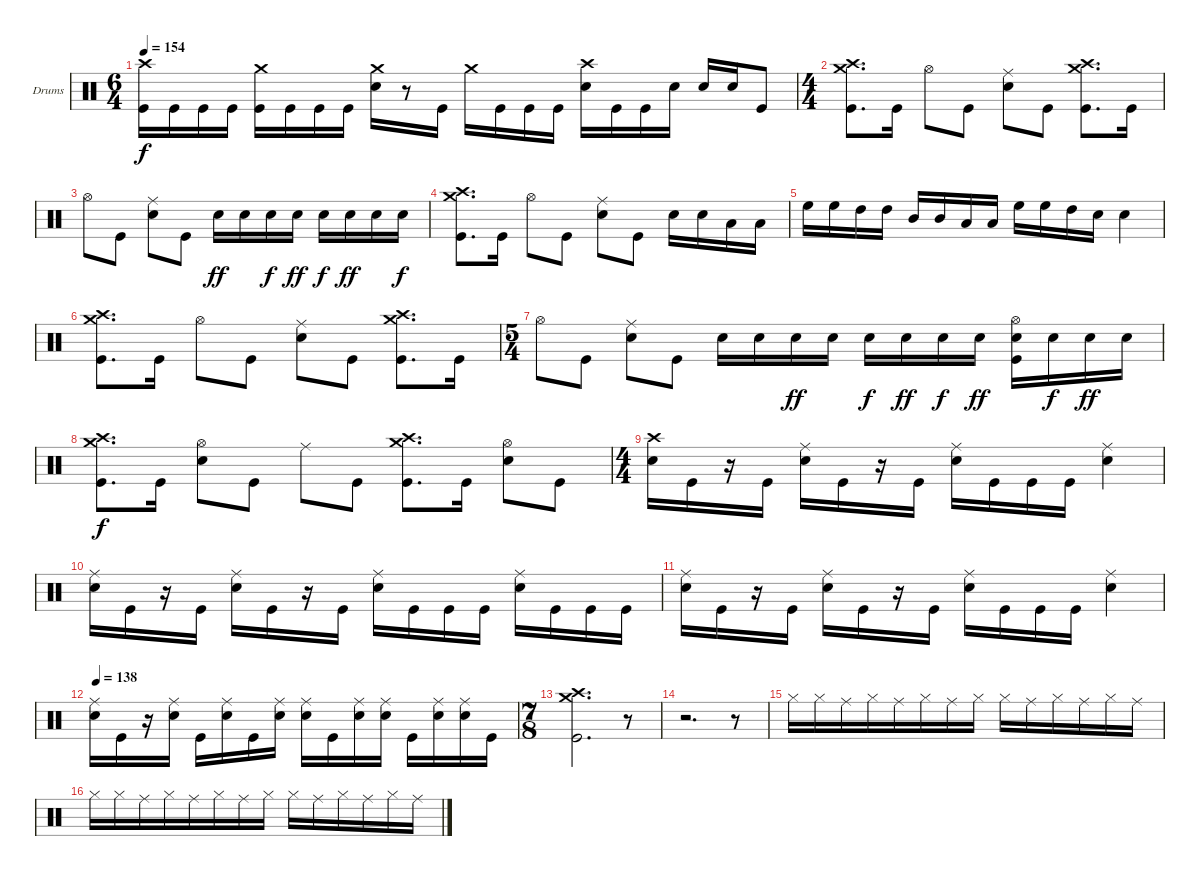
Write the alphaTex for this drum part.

\defaultSystemsLayout 4
\bracketExtendMode groupsimilarinstruments
\firstSystemTrackNameOrientation horizontal
\otherSystemsTrackNameOrientation horizontal
\track ("Moe Carlson" "Drums") {instrument percussion}
\staff {score}
\articulation defaults
\ts (6 4)
\tempo 154
\clef neutral
\ks c
("Kick (hit)" "Crash high (hit)").16{dy f} "Kick (hit)".16 "Kick (hit)".16 "Kick (hit)".16 ("Crash medium (hit)" "Kick (hit)").16 "Kick (hit)".16 "Kick (hit)".16 "Kick (hit)".16 ("Snare (hit) 2" "Crash medium (hit)").16 r.8 "Kick (hit)".16 "Crash medium (hit)".16 "Kick (hit)".16 "Kick (hit)".16 "Kick (hit)".16 ("Snare (hit) 2" "Crash high (hit)").16 "Kick (hit)".16 "Kick (hit)".16 "Snare (hit) 2".16 "Snare (hit) 2".16 "Snare (hit) 2".16 "Kick (hit)".8 |
\ts (4 4)
("Crash medium (hit)" "Crash high (hit)" "Kick (hit)").8{d} "Kick (hit)".16 "Hi-Hat (open)".8 "Kick (hit)".8 ("Snare (hit) 2" "Ride (middle)").8 "Kick (hit)".8 ("Kick (hit)" "Crash high (hit)" "Crash medium (hit)").8{d} "Kick (hit)".16 |
"Hi-Hat (open)".8 "Kick (hit)".8 ("Snare (hit) 2" "Ride (middle)").8 "Kick (hit)".8 "Snare (hit) 2".16{dy ff} "Snare (hit) 2".16 "Snare (hit) 2".16{dy f} "Snare (hit) 2".16{dy ff} "Snare (hit) 2".16{dy f} "Snare (hit) 2".16{dy ff} "Snare (hit) 2".16 "Snare (hit) 2".16{dy f} |
("Kick (hit)" "Crash high (hit)" "Crash medium (hit)").8{d} "Kick (hit)".16 "Hi-Hat (open)".8 "Kick (hit)".8 ("Snare (hit) 2" "Ride (middle)").8 "Kick (hit)".8 "Snare (hit) 2".16 "Snare (hit) 2".16 "Low Tom (hit)".16 "Low Tom (hit)".16 |
"High Floor Tom (hit)".16 "High Floor Tom (hit)".16 "High Tom (hit)".16 "High Tom (hit)".16 "Mid Tom (hit)".16 "Mid Tom (hit)".16 "Low Tom (hit)".16 "Low Tom (hit)".16 "High Floor Tom (hit)".16 "High Floor Tom (hit)".16 "High Tom (hit)".16 "Snare (hit) 2".16 "Snare (hit) 2".4 |
("Crash high (hit)" "Crash medium (hit)" "Kick (hit)").8{d} "Kick (hit)".16 "Hi-Hat (open)".8 "Kick (hit)".8 ("Snare (hit) 2" "Ride (middle)").8 "Kick (hit)".8 ("Kick (hit)" "Crash high (hit)" "Crash medium (hit)").8{d} "Kick (hit)".16 |
\ts (5 4)
"Hi-Hat (open)".8 "Kick (hit)".8 ("Snare (hit) 2" "Ride (middle)").8 "Kick (hit)".8 "Snare (hit) 2".16 "Snare (hit) 2".16 "Snare (hit) 2".16{dy ff} "Snare (hit) 2".16 "Snare (hit) 2".16{dy f} "Snare (hit) 2".16{dy ff} "Snare (hit) 2".16{dy f} "Snare (hit) 2".16{dy ff} ("Snare (hit) 2" "Hi-Hat (open)" "Kick (hit)").16 "Snare (hit) 2".16{dy f} "Snare (hit) 2".16{dy ff} "Snare (hit) 2".16 |
("Kick (hit)" "Crash high (hit)" "Crash medium (hit)").8{d dy f} "Kick (hit)".16 ("Hi-Hat (open)" "Snare (hit) 2").8 "Kick (hit)".8 "Ride (middle)".8 "Kick (hit)".8 ("Kick (hit)" "Crash high (hit)" "Crash medium (hit)").8{d} "Kick (hit)".16 ("Snare (hit) 2" "Hi-Hat (open)").8 "Kick (hit)".8 |
\ts (4 4)
("Snare (hit) 2" "Crash high (hit)").16 "Kick (hit)".16 r.16 "Kick (hit)".16 ("Ride (middle)" "Snare (hit) 2").16 "Kick (hit)".16 r.16 "Kick (hit)".16 ("Ride (middle)" "Snare (hit) 2").16 "Kick (hit)".16 "Kick (hit)".16 "Kick (hit)".16 ("Ride (middle)" "Snare (hit) 2").4 |
("Snare (hit) 2" "Ride (middle)").16 "Kick (hit)".16 r.16 "Kick (hit)".16 ("Snare (hit) 2" "Ride (middle)").16 "Kick (hit)".16 r.16 "Kick (hit)".16 ("Snare (hit) 2" "Ride (middle)").16 "Kick (hit)".16 "Kick (hit)".16 "Kick (hit)".16 ("Snare (hit) 2" "Ride (middle)").16 "Kick (hit)".16 "Kick (hit)".16 "Kick (hit)".16 |
("Snare (hit) 2" "Ride (middle)").16 "Kick (hit)".16 r.16 "Kick (hit)".16 ("Ride (middle)" "Snare (hit) 2").16 "Kick (hit)".16 r.16 "Kick (hit)".16 ("Ride (middle)" "Snare (hit) 2").16 "Kick (hit)".16 "Kick (hit)".16 "Kick (hit)".16 ("Ride (middle)" "Snare (hit) 2").4 |
\tempo (138 0.00625)
("Ride (middle)" "Snare (hit) 2").16 "Kick (hit)".16 r.16 ("Ride (middle)" "Snare (hit) 2").16 "Kick (hit)".16 ("Snare (hit) 2" "Ride (middle)").16 "Kick (hit)".16 ("Snare (hit) 2" "Ride (middle)").16 ("Ride (middle)" "Snare (hit) 2").16 "Kick (hit)".16 ("Snare (hit) 2" "Ride (middle)").16 ("Snare (hit) 2" "Ride (middle)").16 "Kick (hit)".16 ("Ride (middle)" "Snare (hit) 2").16 ("Ride (middle)" "Snare (hit) 2").16 "Kick (hit)".16 |
\ts (7 8)
("Kick (hit)" "Crash high (hit)" "Crash medium (hit)").2{d} r.8 |
r.2{d} r.8 |
"Hi-Hat (closed)".16 "Hi-Hat (closed)".16 "Ride (middle)".16 "Hi-Hat (closed)".16 "Ride (middle)".16 "Hi-Hat (closed)".16 "Ride (middle)".16 "Hi-Hat (closed)".16 "Hi-Hat (closed)".16 "Ride (middle)".16 "Hi-Hat (closed)".16 "Ride (middle)".16 "Hi-Hat (closed)".16 "Ride (middle)".16 |
"Hi-Hat (closed)".16 "Hi-Hat (closed)".16 "Ride (middle)".16 "Hi-Hat (closed)".16 "Ride (middle)".16 "Hi-Hat (closed)".16 "Ride (middle)".16 "Hi-Hat (closed)".16 "Hi-Hat (closed)".16 "Ride (middle)".16 "Hi-Hat (closed)".16 "Ride (middle)".16 "Hi-Hat (closed)".16 "Ride (middle)".16
